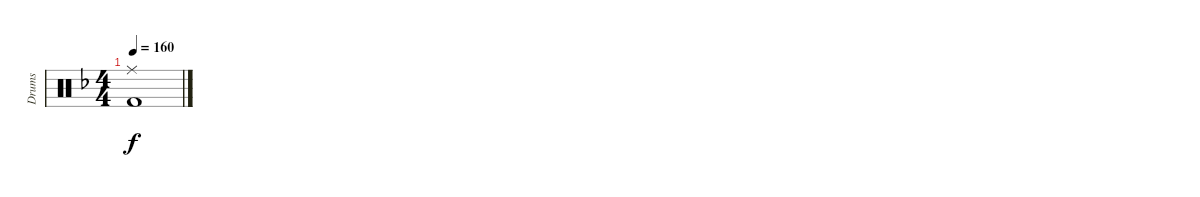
\track ("Drums" "Drums") {instrument percussion}
\staff {score}
\articulation defaults
\ts (4 4)
\tempo 160
\clef neutral
\ks dminor
("Ride (middle)" "Kick (hit) 2").1{dy f}
